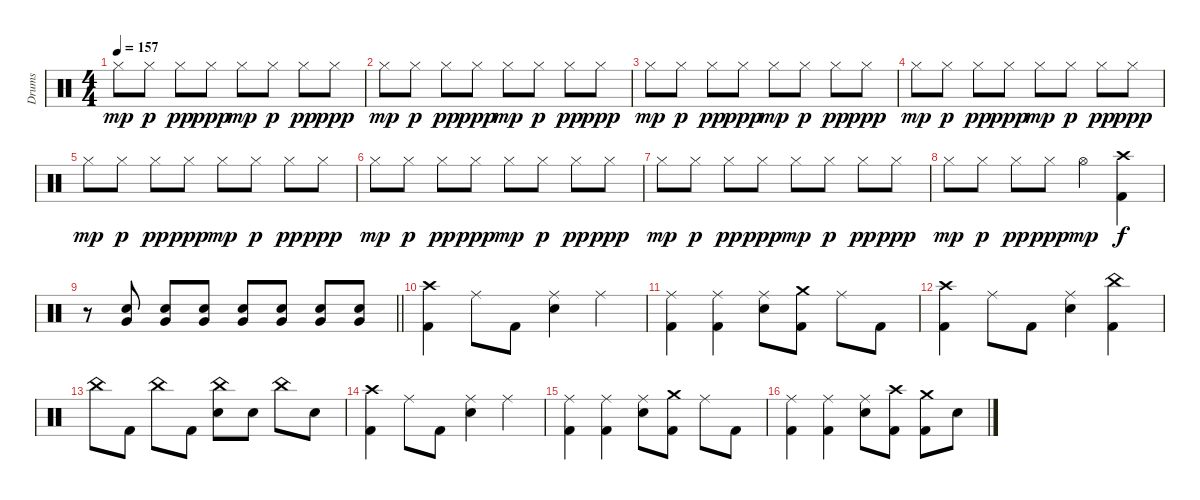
\track ("Drums" "Drums") {instrument percussion}
\staff {score}
\articulation defaults
\ts (4 4)
\tempo 157
\clef neutral
\ks c "Hi-Hat (closed)".8{dy mp} "Hi-Hat (closed)".8{dy p} "Hi-Hat (closed)".8{dy pp} "Hi-Hat (closed)".8{dy ppp} "Hi-Hat (closed)".8{dy mp} "Hi-Hat (closed)".8{dy p} "Hi-Hat (closed)".8{dy pp} "Hi-Hat (closed)".8{dy ppp}
|
"Hi-Hat (closed)".8{dy mp} "Hi-Hat (closed)".8{dy p} "Hi-Hat (closed)".8{dy pp} "Hi-Hat (closed)".8{dy ppp} "Hi-Hat (closed)".8{dy mp} "Hi-Hat (closed)".8{dy p} "Hi-Hat (closed)".8{dy pp} "Hi-Hat (closed)".8{dy ppp} |
"Hi-Hat (closed)".8{dy mp} "Hi-Hat (closed)".8{dy p} "Hi-Hat (closed)".8{dy pp} "Hi-Hat (closed)".8{dy ppp} "Hi-Hat (closed)".8{dy mp} "Hi-Hat (closed)".8{dy p} "Hi-Hat (closed)".8{dy pp} "Hi-Hat (closed)".8{dy ppp} |
"Hi-Hat (closed)".8{dy mp} "Hi-Hat (closed)".8{dy p} "Hi-Hat (closed)".8{dy pp} "Hi-Hat (closed)".8{dy ppp} "Hi-Hat (closed)".8{dy mp} "Hi-Hat (closed)".8{dy p} "Hi-Hat (closed)".8{dy pp} "Hi-Hat (closed)".8{dy ppp} |
"Hi-Hat (closed)".8{dy mp} "Hi-Hat (closed)".8{dy p} "Hi-Hat (closed)".8{dy pp} "Hi-Hat (closed)".8{dy ppp} "Hi-Hat (closed)".8{dy mp} "Hi-Hat (closed)".8{dy p} "Hi-Hat (closed)".8{dy pp} "Hi-Hat (closed)".8{dy ppp} |
"Hi-Hat (closed)".8{dy mp} "Hi-Hat (closed)".8{dy p} "Hi-Hat (closed)".8{dy pp} "Hi-Hat (closed)".8{dy ppp} "Hi-Hat (closed)".8{dy mp} "Hi-Hat (closed)".8{dy p} "Hi-Hat (closed)".8{dy pp} "Hi-Hat (closed)".8{dy ppp} |
"Hi-Hat (closed)".8{dy mp} "Hi-Hat (closed)".8{dy p} "Hi-Hat (closed)".8{dy pp} "Hi-Hat (closed)".8{dy ppp} "Hi-Hat (closed)".8{dy mp} "Hi-Hat (closed)".8{dy p} "Hi-Hat (closed)".8{dy pp} "Hi-Hat (closed)".8{dy ppp} |
"Hi-Hat (closed)".8{dy mp} "Hi-Hat (closed)".8{dy p} "Hi-Hat (closed)".8{dy pp} "Hi-Hat (closed)".8{dy ppp} "Hi-Hat (open)".4{dy mp} ("Crash high (hit)" "Kick (hit) 2").4{dy f volume 15} |
\barLineRight lightlight
r.8 ("Electric Snare (hit)" "Very Low Tom (hit)").8 ("Electric Snare (hit)" "Very Low Tom (hit)").8 ("Electric Snare (hit)" "Very Low Tom (hit)").8 ("Electric Snare (hit)" "Very Low Tom (hit)").8 ("Electric Snare (hit)" "Very Low Tom (hit)").8 ("Electric Snare (hit)" "Very Low Tom (hit)").8 ("Electric Snare (hit)" "Very Low Tom (hit)").8 |
\section ("" "")
("Crash high (hit)" "Kick (hit) 2").4 "Ride (middle)".8 "Kick (hit) 2".8 ("Ride (middle)" "Electric Snare (hit)").4 "Ride (middle)".4 |
("Ride (middle)" "Kick (hit) 2").4 ("Ride (middle)" "Kick (hit) 2").4 ("Ride (middle)" "Electric Snare (hit)").8 ("Crash medium (hit)" "Kick (hit) 2").8 "Ride (middle)".8 "Kick (hit) 2".8 |
("Crash high (hit)" "Kick (hit) 2").4 "Ride (middle)".8 "Kick (hit) 2".8 ("Ride (middle)" "Electric Snare (hit)").4 ("China (hit)" "Kick (hit) 2").4 |
"China (hit)".8 "Kick (hit) 2".8 "China (hit)".8 "Kick (hit) 2".8 ("China (hit)" "Electric Snare (hit)").8 "Electric Snare (hit)".8 "China (hit)".8 "Electric Snare (hit)".8 |
("Crash high (hit)" "Kick (hit) 2").4 "Ride (middle)".8 "Kick (hit) 2".8 ("Ride (middle)" "Electric Snare (hit)").4 "Ride (middle)".4 |
("Ride (middle)" "Kick (hit) 2").4 ("Ride (middle)" "Kick (hit) 2").4 ("Ride (middle)" "Electric Snare (hit)").8 ("Crash medium (hit)" "Kick (hit) 2").8 "Ride (middle)".8 "Kick (hit) 2".8 |
("Ride (middle)" "Kick (hit) 2").4 ("Ride (middle)" "Kick (hit) 2").4 ("Ride (middle)" "Electric Snare (hit)").8 ("Crash high (hit)" "Kick (hit) 2").8 ("Crash medium (hit)" "Kick (hit) 2").8 "Electric Snare (hit)".8
